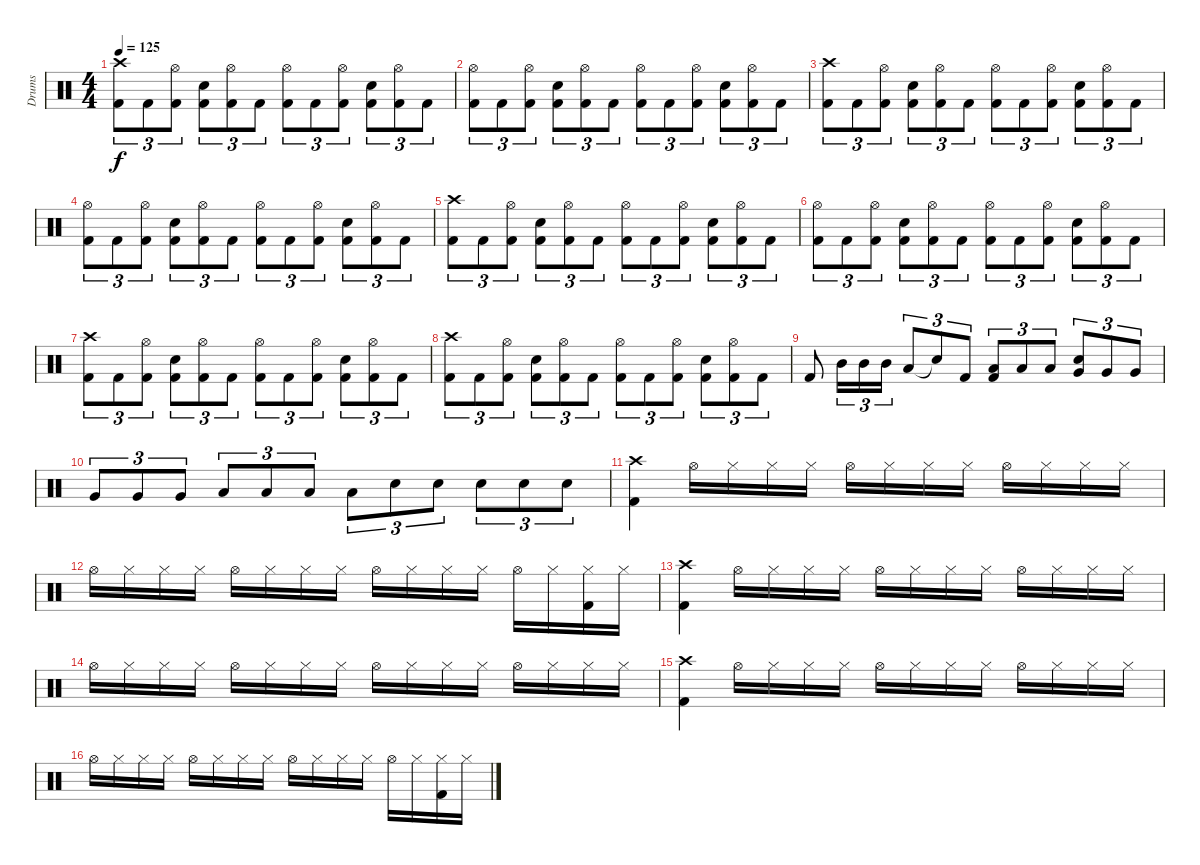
\track ("Drums" "Drums") {instrument percussion}
\staff {score}
\articulation defaults
\ts (4 4)
\tempo 125
\clef neutral
\ks c
("Crash high (hit)" "Kick (hit) 2").8{tu (3 2) dy f} "Kick (hit) 2".8{tu (3 2)} ("Hi-Hat (open)" "Kick (hit) 2").8{tu (3 2)} ("Snare (hit) 2" "Kick (hit) 2").8{tu (3 2)} ("Hi-Hat (open)" "Kick (hit) 2").8{tu (3 2)} "Kick (hit) 2".8{tu (3 2)} ("Hi-Hat (open)" "Kick (hit) 2").8{tu (3 2)} "Kick (hit) 2".8{tu (3 2)} ("Hi-Hat (open)" "Kick (hit) 2").8{tu (3 2)} ("Snare (hit) 2" "Kick (hit) 2").8{tu (3 2)} ("Hi-Hat (open)" "Kick (hit) 2").8{tu (3 2)} "Kick (hit) 2".8{tu (3 2)} |
("Hi-Hat (open)" "Kick (hit) 2").8{tu (3 2)} "Kick (hit) 2".8{tu (3 2)} ("Hi-Hat (open)" "Kick (hit) 2").8{tu (3 2)} ("Snare (hit) 2" "Kick (hit) 2").8{tu (3 2)} ("Hi-Hat (open)" "Kick (hit) 2").8{tu (3 2)} "Kick (hit) 2".8{tu (3 2)} ("Hi-Hat (open)" "Kick (hit) 2").8{tu (3 2)} "Kick (hit) 2".8{tu (3 2)} ("Hi-Hat (open)" "Kick (hit) 2").8{tu (3 2)} ("Snare (hit) 2" "Kick (hit) 2").8{tu (3 2)} ("Hi-Hat (open)" "Kick (hit) 2").8{tu (3 2)} "Kick (hit) 2".8{tu (3 2)} |
("Crash high (hit)" "Kick (hit) 2").8{tu (3 2)} "Kick (hit) 2".8{tu (3 2)} ("Hi-Hat (open)" "Kick (hit) 2").8{tu (3 2)} ("Snare (hit) 2" "Kick (hit) 2").8{tu (3 2)} ("Hi-Hat (open)" "Kick (hit) 2").8{tu (3 2)} "Kick (hit) 2".8{tu (3 2)} ("Hi-Hat (open)" "Kick (hit) 2").8{tu (3 2)} "Kick (hit) 2".8{tu (3 2)} ("Hi-Hat (open)" "Kick (hit) 2").8{tu (3 2)} ("Snare (hit) 2" "Kick (hit) 2").8{tu (3 2)} ("Hi-Hat (open)" "Kick (hit) 2").8{tu (3 2)} "Kick (hit) 2".8{tu (3 2)} |
("Hi-Hat (open)" "Kick (hit) 2").8{tu (3 2)} "Kick (hit) 2".8{tu (3 2)} ("Hi-Hat (open)" "Kick (hit) 2").8{tu (3 2)} ("Snare (hit) 2" "Kick (hit) 2").8{tu (3 2)} ("Hi-Hat (open)" "Kick (hit) 2").8{tu (3 2)} "Kick (hit) 2".8{tu (3 2)} ("Hi-Hat (open)" "Kick (hit) 2").8{tu (3 2)} "Kick (hit) 2".8{tu (3 2)} ("Hi-Hat (open)" "Kick (hit) 2").8{tu (3 2)} ("Snare (hit) 2" "Kick (hit) 2").8{tu (3 2)} ("Hi-Hat (open)" "Kick (hit) 2").8{tu (3 2)} "Kick (hit) 2".8{tu (3 2)} |
("Crash high (hit)" "Kick (hit) 2").8{tu (3 2)} "Kick (hit) 2".8{tu (3 2)} ("Hi-Hat (open)" "Kick (hit) 2").8{tu (3 2)} ("Snare (hit) 2" "Kick (hit) 2").8{tu (3 2)} ("Hi-Hat (open)" "Kick (hit) 2").8{tu (3 2)} "Kick (hit) 2".8{tu (3 2)} ("Hi-Hat (open)" "Kick (hit) 2").8{tu (3 2)} "Kick (hit) 2".8{tu (3 2)} ("Hi-Hat (open)" "Kick (hit) 2").8{tu (3 2)} ("Snare (hit) 2" "Kick (hit) 2").8{tu (3 2)} ("Hi-Hat (open)" "Kick (hit) 2").8{tu (3 2)} "Kick (hit) 2".8{tu (3 2)} |
("Hi-Hat (open)" "Kick (hit) 2").8{tu (3 2)} "Kick (hit) 2".8{tu (3 2)} ("Hi-Hat (open)" "Kick (hit) 2").8{tu (3 2)} ("Snare (hit) 2" "Kick (hit) 2").8{tu (3 2)} ("Hi-Hat (open)" "Kick (hit) 2").8{tu (3 2)} "Kick (hit) 2".8{tu (3 2)} ("Hi-Hat (open)" "Kick (hit) 2").8{tu (3 2)} "Kick (hit) 2".8{tu (3 2)} ("Hi-Hat (open)" "Kick (hit) 2").8{tu (3 2)} ("Snare (hit) 2" "Kick (hit) 2").8{tu (3 2)} ("Hi-Hat (open)" "Kick (hit) 2").8{tu (3 2)} "Kick (hit) 2".8{tu (3 2)} |
("Crash high (hit)" "Kick (hit) 2").8{tu (3 2)} "Kick (hit) 2".8{tu (3 2)} ("Hi-Hat (open)" "Kick (hit) 2").8{tu (3 2)} ("Snare (hit) 2" "Kick (hit) 2").8{tu (3 2)} ("Hi-Hat (open)" "Kick (hit) 2").8{tu (3 2)} "Kick (hit) 2".8{tu (3 2)} ("Hi-Hat (open)" "Kick (hit) 2").8{tu (3 2)} "Kick (hit) 2".8{tu (3 2)} ("Hi-Hat (open)" "Kick (hit) 2").8{tu (3 2)} ("Snare (hit) 2" "Kick (hit) 2").8{tu (3 2)} ("Hi-Hat (open)" "Kick (hit) 2").8{tu (3 2)} "Kick (hit) 2".8{tu (3 2)} |
("Crash high (hit)" "Kick (hit) 2").8{tu (3 2)} "Kick (hit) 2".8{tu (3 2)} ("Hi-Hat (open)" "Kick (hit) 2").8{tu (3 2)} ("Snare (hit) 2" "Kick (hit) 2").8{tu (3 2)} ("Hi-Hat (open)" "Kick (hit) 2").8{tu (3 2)} "Kick (hit) 2".8{tu (3 2)} ("Hi-Hat (open)" "Kick (hit) 2").8{tu (3 2)} "Kick (hit) 2".8{tu (3 2)} ("Hi-Hat (open)" "Kick (hit) 2").8{tu (3 2)} ("Snare (hit) 2" "Kick (hit) 2").8{tu (3 2)} ("Hi-Hat (open)" "Kick (hit) 2").8{tu (3 2)} "Kick (hit) 2".8{tu (3 2)} |
"Kick (hit) 2".8 "Mid Tom (hit)".16{tu (3 2)} "Mid Tom (hit)".16{tu (3 2)} "Mid Tom (hit)".16{tu (3 2)} "Low Tom (hit)".8{tu (3 2)} "Snare (hit)"{t}.8{tu (3 2)} "Kick (hit) 2".8{tu (3 2)} ("Kick (hit) 2" "Low Tom (hit)").8{tu (3 2)} "Low Tom (hit)".8{tu (3 2)} "Low Tom (hit)".8{tu (3 2)} ("Snare (hit)" "Very Low Tom (hit)").8{tu (3 2)} "Very Low Tom (hit)".8{tu (3 2)} "Very Low Tom (hit)".8{tu (3 2)} |
"Very Low Tom (hit)".8{tu (3 2)} "Very Low Tom (hit)".8{tu (3 2)} "Very Low Tom (hit)".8{tu (3 2)} "Low Floor Tom (hit)".8{tu (3 2)} "Low Floor Tom (hit)".8{tu (3 2)} "Low Floor Tom (hit)".8{tu (3 2)} "Low Floor Tom (hit)".8{tu (3 2)} "Snare (hit) 2".8{tu (3 2)} "Snare (hit) 2".8{tu (3 2)} "Snare (hit) 2".8{tu (3 2)} "Snare (hit) 2".8{tu (3 2)} "Snare (hit) 2".8{tu (3 2)} |
("Crash high (hit)" "Kick (hit) 2").4 "Hi-Hat (open)".16 "Hi-Hat (closed)".16 "Hi-Hat (closed)".16 "Hi-Hat (closed)".16 "Hi-Hat (open)".16 "Hi-Hat (closed)".16 "Hi-Hat (closed)".16 "Hi-Hat (closed)".16 "Hi-Hat (open)".16 "Hi-Hat (closed)".16 "Hi-Hat (closed)".16 "Hi-Hat (closed)".16 |
"Hi-Hat (open)".16 "Hi-Hat (closed)".16 "Hi-Hat (closed)".16 "Hi-Hat (closed)".16 "Hi-Hat (open)".16 "Hi-Hat (closed)".16 "Hi-Hat (closed)".16 "Hi-Hat (closed)".16 "Hi-Hat (open)".16 "Hi-Hat (closed)".16 "Hi-Hat (closed)".16 "Hi-Hat (closed)".16 "Hi-Hat (open)".16 "Hi-Hat (closed)".16 ("Hi-Hat (closed)" "Kick (hit) 2").16 "Hi-Hat (closed)".16 |
("Crash high (hit)" "Kick (hit) 2").4 "Hi-Hat (open)".16 "Hi-Hat (closed)".16 "Hi-Hat (closed)".16 "Hi-Hat (closed)".16 "Hi-Hat (open)".16 "Hi-Hat (closed)".16 "Hi-Hat (closed)".16 "Hi-Hat (closed)".16 "Hi-Hat (open)".16 "Hi-Hat (closed)".16 "Hi-Hat (closed)".16 "Hi-Hat (closed)".16 |
"Hi-Hat (open)".16 "Hi-Hat (closed)".16 "Hi-Hat (closed)".16 "Hi-Hat (closed)".16 "Hi-Hat (open)".16 "Hi-Hat (closed)".16 "Hi-Hat (closed)".16 "Hi-Hat (closed)".16 "Hi-Hat (open)".16 "Hi-Hat (closed)".16 "Hi-Hat (closed)".16 "Hi-Hat (closed)".16 "Hi-Hat (open)".16 "Hi-Hat (closed)".16 "Hi-Hat (closed)".16 "Hi-Hat (closed)".16 |
("Crash high (hit)" "Kick (hit) 2").4 "Hi-Hat (open)".16 "Hi-Hat (closed)".16 "Hi-Hat (closed)".16 "Hi-Hat (closed)".16 "Hi-Hat (open)".16 "Hi-Hat (closed)".16 "Hi-Hat (closed)".16 "Hi-Hat (closed)".16 "Hi-Hat (open)".16 "Hi-Hat (closed)".16 "Hi-Hat (closed)".16 "Hi-Hat (closed)".16 |
"Hi-Hat (open)".16 "Hi-Hat (closed)".16 "Hi-Hat (closed)".16 "Hi-Hat (closed)".16 "Hi-Hat (open)".16 "Hi-Hat (closed)".16 "Hi-Hat (closed)".16 "Hi-Hat (closed)".16 "Hi-Hat (open)".16 "Hi-Hat (closed)".16 "Hi-Hat (closed)".16 "Hi-Hat (closed)".16 "Hi-Hat (open)".16 "Hi-Hat (closed)".16 ("Hi-Hat (closed)" "Kick (hit) 2").16 "Hi-Hat (closed)".16
